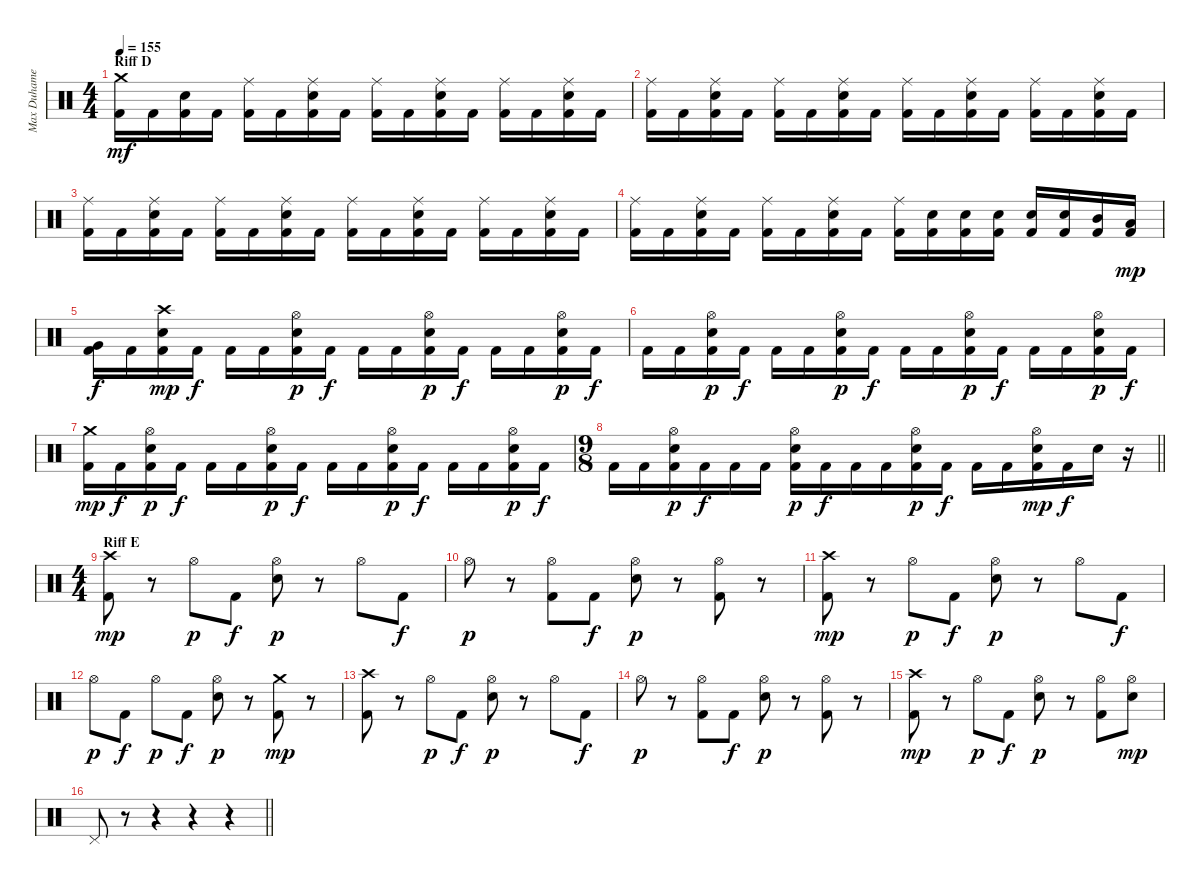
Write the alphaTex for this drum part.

\track ("Max Duhamel" "Max Duhame") {instrument percussion}
\staff {score}
\articulation defaults
\ts (4 4)
\section ("" "Riff D")
\tempo 155
\clef neutral
\ks c
("Crash medium (hit)" "Kick (hit) 2").16{dy mf} "Kick (hit) 2".16 ("Electric Snare (hit)" "Kick (hit) 2").16 "Kick (hit) 2".16 ("Ride (middle)" "Kick (hit) 2").16 "Kick (hit) 2".16 ("Ride (middle)" "Electric Snare (hit)" "Kick (hit) 2").16 "Kick (hit) 2".16 ("Ride (middle)" "Kick (hit) 2").16 "Kick (hit) 2".16 ("Ride (middle)" "Electric Snare (hit)" "Kick (hit) 2").16 "Kick (hit) 2".16 ("Ride (middle)" "Kick (hit) 2").16 "Kick (hit) 2".16 ("Ride (middle)" "Electric Snare (hit)" "Kick (hit) 2").16 "Kick (hit) 2".16 |
("Ride (middle)" "Kick (hit) 2").16 "Kick (hit) 2".16 ("Ride (middle)" "Electric Snare (hit)" "Kick (hit) 2").16 "Kick (hit) 2".16 ("Ride (middle)" "Kick (hit) 2").16 "Kick (hit) 2".16 ("Ride (middle)" "Electric Snare (hit)" "Kick (hit) 2").16 "Kick (hit) 2".16 ("Ride (middle)" "Kick (hit) 2").16 "Kick (hit) 2".16 ("Ride (middle)" "Electric Snare (hit)" "Kick (hit) 2").16 "Kick (hit) 2".16 ("Ride (middle)" "Kick (hit) 2").16 "Kick (hit) 2".16 ("Ride (middle)" "Electric Snare (hit)" "Kick (hit) 2").16 "Kick (hit) 2".16 |
("Ride (middle)" "Kick (hit) 2").16 "Kick (hit) 2".16 ("Ride (middle)" "Electric Snare (hit)" "Kick (hit) 2").16 "Kick (hit) 2".16 ("Ride (middle)" "Kick (hit) 2").16 "Kick (hit) 2".16 ("Ride (middle)" "Electric Snare (hit)" "Kick (hit) 2").16 "Kick (hit) 2".16 ("Ride (middle)" "Kick (hit) 2").16 "Kick (hit) 2".16 ("Ride (middle)" "Electric Snare (hit)" "Kick (hit) 2").16 "Kick (hit) 2".16 ("Ride (middle)" "Kick (hit) 2").16 "Kick (hit) 2".16 ("Ride (middle)" "Electric Snare (hit)" "Kick (hit) 2").16 "Kick (hit) 2".16 |
("Ride (middle)" "Kick (hit) 2").16 "Kick (hit) 2".16 ("Ride (middle)" "Electric Snare (hit)" "Kick (hit) 2").16 "Kick (hit) 2".16 ("Ride (middle)" "Kick (hit) 2").16 "Kick (hit) 2".16 ("Ride (middle)" "Electric Snare (hit)" "Kick (hit) 2").16 "Kick (hit) 2".16 ("Ride (middle)" "Kick (hit) 2").16 ("Electric Snare (hit)" "Kick (hit) 2").16 ("Electric Snare (hit)" "Kick (hit) 2").16 ("Electric Snare (hit)" "Kick (hit) 2").16 ("Electric Snare (hit)" "Kick (hit) 2").16 ("Electric Snare (hit)" "Kick (hit) 2").16 ("Mid Tom (hit)" "Kick (hit) 2").16 ("Low Tom (hit)" "Kick (hit) 2").16{dy mp} |
("Very Low Tom (hit)" "Kick (hit) 2").16{dy f} "Kick (hit) 2".16 ("Crash high (hit)" "Electric Snare (hit)" "Kick (hit) 2").16{dy mp} "Kick (hit) 2".16{dy f} "Kick (hit) 2".16 "Kick (hit) 2".16 ("Hi-Hat (open)" "Electric Snare (hit)" "Kick (hit) 2").16{dy p} "Kick (hit) 2".16{dy f} "Kick (hit) 2".16 "Kick (hit) 2".16 ("Hi-Hat (open)" "Electric Snare (hit)" "Kick (hit) 2").16{dy p} "Kick (hit) 2".16{dy f} "Kick (hit) 2".16 "Kick (hit) 2".16 ("Hi-Hat (open)" "Electric Snare (hit)" "Kick (hit) 2").16{dy p} "Kick (hit) 2".16{dy f} |
"Kick (hit) 2".16 "Kick (hit) 2".16 ("Hi-Hat (open)" "Electric Snare (hit)" "Kick (hit) 2").16{dy p} "Kick (hit) 2".16{dy f} "Kick (hit) 2".16 "Kick (hit) 2".16 ("Hi-Hat (open)" "Electric Snare (hit)" "Kick (hit) 2").16{dy p} "Kick (hit) 2".16{dy f} "Kick (hit) 2".16 "Kick (hit) 2".16 ("Hi-Hat (open)" "Electric Snare (hit)" "Kick (hit) 2").16{dy p} "Kick (hit) 2".16{dy f} "Kick (hit) 2".16 "Kick (hit) 2".16 ("Hi-Hat (open)" "Electric Snare (hit)" "Kick (hit) 2").16{dy p} "Kick (hit) 2".16{dy f} |
("Crash medium (hit)" "Kick (hit) 2").16{dy mp} "Kick (hit) 2".16{dy f} ("Hi-Hat (open)" "Electric Snare (hit)" "Kick (hit) 2").16{dy p} "Kick (hit) 2".16{dy f} "Kick (hit) 2".16 "Kick (hit) 2".16 ("Hi-Hat (open)" "Electric Snare (hit)" "Kick (hit) 2").16{dy p} "Kick (hit) 2".16{dy f} "Kick (hit) 2".16 "Kick (hit) 2".16 ("Hi-Hat (open)" "Electric Snare (hit)" "Kick (hit) 2").16{dy p} "Kick (hit) 2".16{dy f} "Kick (hit) 2".16 "Kick (hit) 2".16 ("Hi-Hat (open)" "Electric Snare (hit)" "Kick (hit) 2").16{dy p} "Kick (hit) 2".16{dy f} |
\ts (9 8)
\barLineRight lightlight "Kick (hit) 2".16 "Kick (hit) 2".16
("Hi-Hat (open)" "Electric Snare (hit)" "Kick (hit) 2").16{dy p} "Kick (hit) 2".16{dy f} "Kick (hit) 2".16 "Kick (hit) 2".16 ("Hi-Hat (open)" "Electric Snare (hit)" "Kick (hit) 2").16{dy p} "Kick (hit) 2".16{dy f} "Kick (hit) 2".16 "Kick (hit) 2".16 ("Hi-Hat (open)" "Electric Snare (hit)" "Kick (hit) 2").16{dy p} "Kick (hit) 2".16{dy f} "Kick (hit) 2".16 "Kick (hit) 2".16 ("Hi-Hat (open)" "Electric Snare (hit)" "Kick (hit) 2").16{dy mp} "Kick (hit) 2".16{dy f} "Electric Snare (hit)".16 r.16 |
\ts (4 4)
\section ("" "Riff E")
("Crash high (hit)" "Kick (hit) 2").8{dy mp} r.8 "Hi-Hat (open)".8{dy p} "Kick (hit) 2".8{dy f} ("Hi-Hat (open)" "Electric Snare (hit)").8{dy p} r.8 "Hi-Hat (open)".8 "Kick (hit) 2".8{dy f} |
"Hi-Hat (open)".8{dy p} r.8 ("Hi-Hat (open)" "Kick (hit) 2").8 "Kick (hit) 2".8{dy f} ("Hi-Hat (open)" "Electric Snare (hit)").8{dy p} r.8 ("Hi-Hat (open)" "Kick (hit) 2").8 r.8 |
("Crash high (hit)" "Kick (hit) 2").8{dy mp} r.8 "Hi-Hat (open)".8{dy p} "Kick (hit) 2".8{dy f} ("Hi-Hat (open)" "Electric Snare (hit)").8{dy p} r.8 "Hi-Hat (open)".8 "Kick (hit) 2".8{dy f} |
"Hi-Hat (open)".8{dy p} "Kick (hit) 2".8{dy f} "Hi-Hat (open)".8{dy p} "Kick (hit) 2".8{dy f} ("Hi-Hat (open)" "Electric Snare (hit)").8{dy p} r.8 ("Crash medium (hit)" "Kick (hit) 2").8{dy mp} r.8 |
("Crash high (hit)" "Kick (hit) 2").8 r.8 "Hi-Hat (open)".8{dy p} "Kick (hit) 2".8{dy f} ("Hi-Hat (open)" "Electric Snare (hit)").8{dy p} r.8 "Hi-Hat (open)".8 "Kick (hit) 2".8{dy f} |
"Hi-Hat (open)".8{dy p} r.8 ("Hi-Hat (open)" "Kick (hit) 2").8 "Kick (hit) 2".8{dy f} ("Hi-Hat (open)" "Electric Snare (hit)").8{dy p} r.8 ("Hi-Hat (open)" "Kick (hit) 2").8 r.8 |
("Crash high (hit)" "Kick (hit) 2").8{dy mp} r.8 "Hi-Hat (open)".8{dy p} "Kick (hit) 2".8{dy f} ("Hi-Hat (open)" "Electric Snare (hit)").8{dy p} r.8 ("Hi-Hat (open)" "Kick (hit) 2").8 ("Hi-Hat (open)" "Electric Snare (hit)").8{dy mp} |
\barLineRight lightlight "Pedal Hi-Hat (hit)".8
r.8 r.4 r.4 r.4
